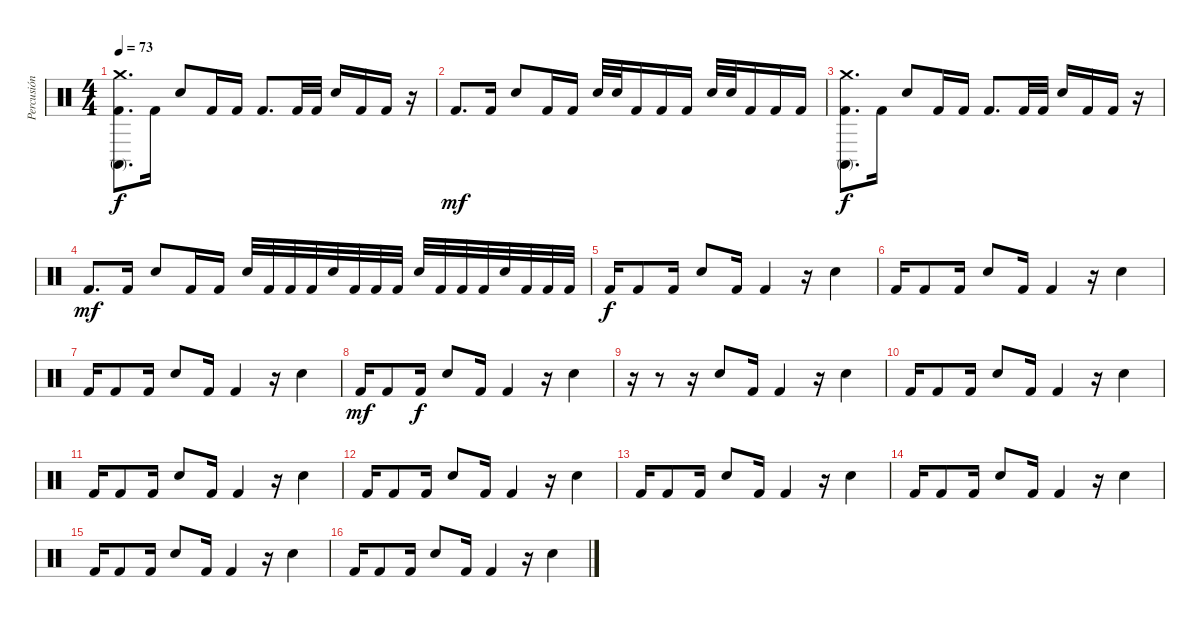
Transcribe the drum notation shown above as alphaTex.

\track ("Percusión" "Percusión") {instrument percussion}
\staff {score}
\articulation defaults
\ts (4 4)
\tempo 73
\clef neutral
\ks c
("Kick (hit) 2" "Conga high (mute)" "Crash medium (hit)").8{d dy f} "Kick (hit) 2".16 "Snare (hit) 2".8 "Kick (hit) 2".16 "Kick (hit) 2".16 "Kick (hit) 2".8{d} "Kick (hit) 2".32 "Kick (hit) 2".32 "Snare (hit) 2".16 "Kick (hit) 2".16 "Kick (hit) 2".16 r.16 |
"Kick (hit) 2".8{d dy mf} "Kick (hit) 2".16 "Snare (hit) 2".8 "Kick (hit) 2".16 "Kick (hit) 2".16 "Snare (hit) 2".32 "Snare (hit) 2".32 "Kick (hit) 2".16 "Kick (hit) 2".16 "Kick (hit) 2".16 "Snare (hit) 2".32 "Snare (hit) 2".32 "Kick (hit) 2".16 "Kick (hit) 2".16 "Kick (hit) 2".16 |
("Kick (hit) 2" "Conga high (mute)" "Crash medium (hit)").8{d dy f} "Kick (hit) 2".16 "Snare (hit) 2".8 "Kick (hit) 2".16 "Kick (hit) 2".16 "Kick (hit) 2".8{d} "Kick (hit) 2".32 "Kick (hit) 2".32 "Snare (hit) 2".16 "Kick (hit) 2".16 "Kick (hit) 2".16 r.16 |
"Kick (hit) 2".8{d dy mf} "Kick (hit) 2".16 "Snare (hit) 2".8 "Kick (hit) 2".16 "Kick (hit) 2".16 "Snare (hit) 2".32 "Kick (hit) 2".32 "Kick (hit) 2".32 "Kick (hit) 2".32 "Snare (hit) 2".32 "Kick (hit) 2".32 "Kick (hit) 2".32 "Kick (hit) 2".32 "Snare (hit) 2".32 "Kick (hit) 2".32 "Kick (hit) 2".32 "Kick (hit) 2".32 "Snare (hit) 2".32 "Kick (hit) 2".32 "Kick (hit) 2".32 "Kick (hit) 2".32 |
"Kick (hit) 2".16{dy f} "Kick (hit) 2".8 "Kick (hit) 2".16 "Snare (hit) 2".8 "Kick (hit) 2".16 "Kick (hit) 2".4 r.16 "Snare (hit) 2".4 |
"Kick (hit) 2".16 "Kick (hit) 2".8 "Kick (hit) 2".16 "Snare (hit) 2".8 "Kick (hit) 2".16 "Kick (hit) 2".4 r.16 "Snare (hit) 2".4 |
"Kick (hit) 2".16 "Kick (hit) 2".8 "Kick (hit) 2".16 "Snare (hit) 2".8 "Kick (hit) 2".16 "Kick (hit) 2".4 r.16 "Snare (hit) 2".4 |
"Kick (hit) 2".16{dy mf} "Kick (hit) 2".8 "Kick (hit) 2".16{dy f} "Snare (hit) 2".8 "Kick (hit) 2".16 "Kick (hit) 2".4 r.16 "Snare (hit) 2".4 |
r.16 r.8 r.16 "Snare (hit) 2".8 "Kick (hit) 2".16 "Kick (hit) 2".4 r.16 "Snare (hit) 2".4 |
"Kick (hit) 2".16 "Kick (hit) 2".8 "Kick (hit) 2".16 "Snare (hit) 2".8 "Kick (hit) 2".16 "Kick (hit) 2".4 r.16 "Snare (hit) 2".4 |
"Kick (hit) 2".16 "Kick (hit) 2".8 "Kick (hit) 2".16 "Snare (hit) 2".8 "Kick (hit) 2".16 "Kick (hit) 2".4 r.16 "Snare (hit) 2".4 |
"Kick (hit) 2".16 "Kick (hit) 2".8 "Kick (hit) 2".16 "Snare (hit) 2".8 "Kick (hit) 2".16 "Kick (hit) 2".4 r.16 "Snare (hit) 2".4 |
"Kick (hit) 2".16 "Kick (hit) 2".8 "Kick (hit) 2".16 "Snare (hit) 2".8 "Kick (hit) 2".16 "Kick (hit) 2".4 r.16 "Snare (hit) 2".4 |
"Kick (hit) 2".16 "Kick (hit) 2".8 "Kick (hit) 2".16 "Snare (hit) 2".8 "Kick (hit) 2".16 "Kick (hit) 2".4 r.16 "Snare (hit) 2".4 |
"Kick (hit) 2".16 "Kick (hit) 2".8 "Kick (hit) 2".16 "Snare (hit) 2".8 "Kick (hit) 2".16 "Kick (hit) 2".4 r.16 "Snare (hit) 2".4 |
"Kick (hit) 2".16 "Kick (hit) 2".8 "Kick (hit) 2".16 "Snare (hit) 2".8 "Kick (hit) 2".16 "Kick (hit) 2".4 r.16 "Snare (hit) 2".4
